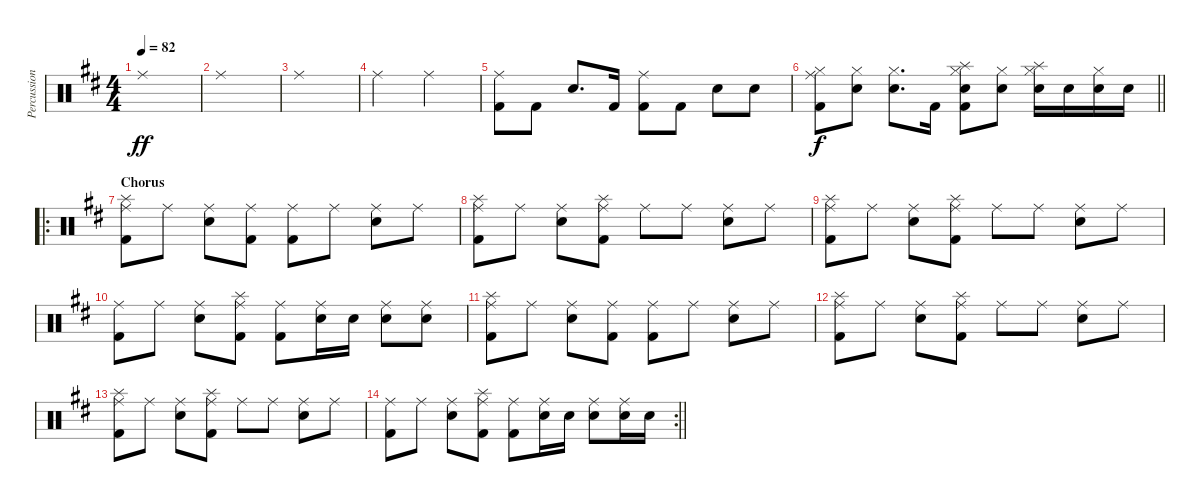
\track ("Percussion" "Percussion") {instrument percussion}
\staff {score}
\articulation defaults
\ts (4 4)
\tempo 82
\clef neutral
\ks d "Ride (middle)".1{dy ff}
|
"Ride (middle)".1 |
"Ride (middle)".1 |
"Ride (middle)".2 "Ride (middle)".2 |
("Ride (middle)" "Kick (hit) 2").8 "Kick (hit) 2".8 "Snare (hit) 2".8{d} "Kick (hit) 2".16 ("Ride (middle)" "Kick (hit) 2").8 "Kick (hit) 2".8 "Snare (hit) 2".8 "Snare (hit) 2".8 |
\barLineRight lightlight
("Ride (middle)" "Hi-Hat (closed)" "Kick (hit) 2").8{dy f} ("Hi-Hat (closed)" "Snare (hit) 2").8 ("Hi-Hat (closed)" "Snare (hit) 2").8{d} "Kick (hit) 2".16 ("Splash (hit)" "Hi-Hat (closed)" "Snare (hit) 2" "Kick (hit) 2").8 ("Hi-Hat (closed)" "Snare (hit) 2").8 ("Splash (hit)" "Hi-Hat (closed)" "Snare (hit) 2").16 "Snare (hit) 2".16 ("Hi-Hat (closed)" "Snare (hit) 2").16 "Snare (hit) 2".16 |
\ro
\section ("" "Chorus")
("Splash (hit)" "Ride (middle)" "Kick (hit) 2").8 "Ride (middle)".8 ("Ride (middle)" "Snare (hit) 2").8 ("Ride (middle)" "Kick (hit) 2").8 ("Ride (middle)" "Kick (hit) 2").8 "Ride (middle)".8 ("Ride (middle)" "Snare (hit) 2").8 "Ride (middle)".8 |
("Splash (hit)" "Ride (middle)" "Kick (hit) 2").8 "Ride (middle)".8 ("Ride (middle)" "Snare (hit) 2").8 ("Splash (hit)" "Ride (middle)" "Kick (hit) 2").8 "Ride (middle)".8 "Ride (middle)".8 ("Ride (middle)" "Snare (hit) 2").8 "Ride (middle)".8 |
("Splash (hit)" "Ride (middle)" "Kick (hit) 2").8 "Ride (middle)".8 ("Ride (middle)" "Snare (hit) 2").8 ("Splash (hit)" "Ride (middle)" "Kick (hit) 2").8 "Ride (middle)".8 "Ride (middle)".8 ("Ride (middle)" "Snare (hit) 2").8 "Ride (middle)".8 |
("Ride (middle)" "Kick (hit) 2").8 "Ride (middle)".8 ("Ride (middle)" "Snare (hit) 2").8 ("Splash (hit)" "Ride (middle)" "Kick (hit) 2").8 ("Ride (middle)" "Kick (hit) 2").8 ("Ride (middle)" "Snare (hit) 2").16 "Snare (hit) 2".16 ("Ride (middle)" "Snare (hit) 2").8 ("Ride (middle)" "Snare (hit) 2").8 |
("Splash (hit)" "Ride (middle)" "Kick (hit) 2").8 "Ride (middle)".8 ("Ride (middle)" "Snare (hit) 2").8 ("Ride (middle)" "Kick (hit) 2").8 ("Ride (middle)" "Kick (hit) 2").8 "Ride (middle)".8 ("Ride (middle)" "Snare (hit) 2").8 "Ride (middle)".8 |
("Splash (hit)" "Ride (middle)" "Kick (hit) 2").8 "Ride (middle)".8 ("Ride (middle)" "Snare (hit) 2").8 ("Splash (hit)" "Ride (middle)" "Kick (hit) 2").8 "Ride (middle)".8 "Ride (middle)".8 ("Ride (middle)" "Snare (hit) 2").8 "Ride (middle)".8 |
("Splash (hit)" "Ride (middle)" "Kick (hit) 2").8 "Ride (middle)".8 ("Ride (middle)" "Snare (hit) 2").8 ("Splash (hit)" "Ride (middle)" "Kick (hit) 2").8 "Ride (middle)".8 "Ride (middle)".8 ("Ride (middle)" "Snare (hit) 2").8 "Ride (middle)".8 |
\rc 2
\barLineRight lightlight
("Ride (middle)" "Kick (hit) 2").8 "Ride (middle)".8 ("Ride (middle)" "Snare (hit) 2").8 ("Splash (hit)" "Ride (middle)" "Kick (hit) 2").8 ("Ride (middle)" "Kick (hit) 2").8 ("Ride (middle)" "Snare (hit) 2").16 "Snare (hit) 2".16 ("Ride (middle)" "Snare (hit) 2").8 ("Ride (middle)" "Snare (hit) 2").16 "Snare (hit) 2".16
